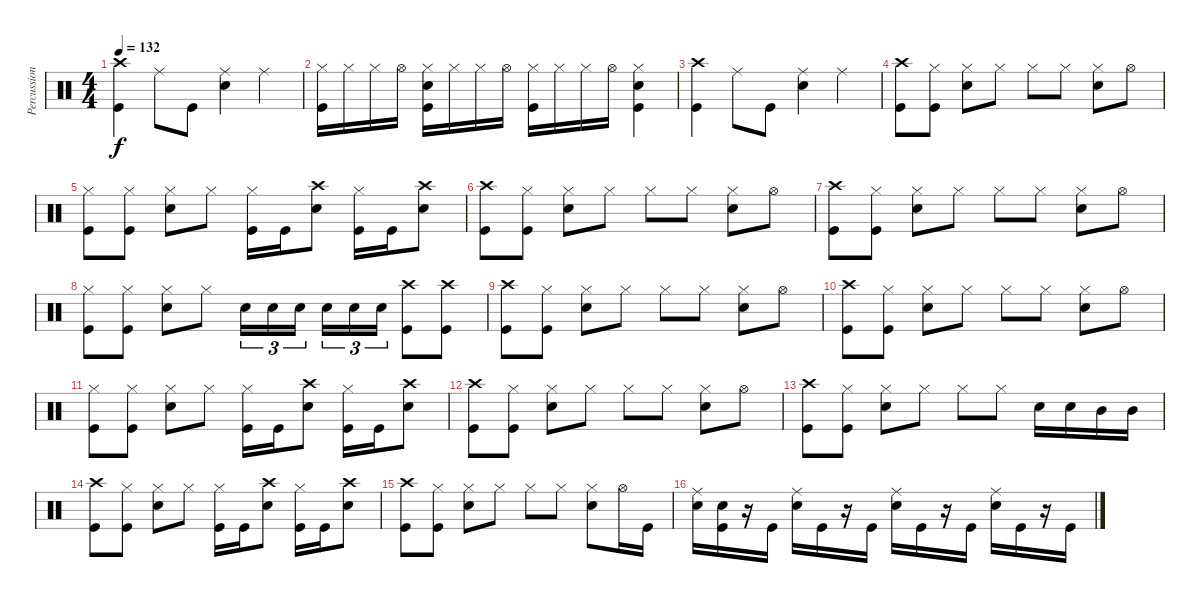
\track ("Percussion" "Percussion") {instrument percussion}
\staff {score}
\articulation defaults
\ts (4 4)
\tempo 132
\clef neutral
\ks c
("Crash high (hit)" "Kick (hit)").4{dy f} "Ride (middle)".8 "Kick (hit)".8 ("Ride (middle)" "Electric Snare (hit)").4 "Ride (middle)".4 |
("Hi-Hat (closed)" "Kick (hit)").16 "Hi-Hat (closed)".16 "Hi-Hat (closed)".16 "Hi-Hat (open)".16 ("Hi-Hat (closed)" "Electric Snare (hit)" "Kick (hit)").16 "Hi-Hat (closed)".16 "Hi-Hat (closed)".16 "Hi-Hat (open)".16 ("Hi-Hat (closed)" "Kick (hit)").16 "Hi-Hat (closed)".16 "Hi-Hat (closed)".16 "Hi-Hat (open)".16 ("Hi-Hat (closed)" "Electric Snare (hit)" "Kick (hit)").4 |
("Crash high (hit)" "Kick (hit)").4 "Ride (middle)".8 "Kick (hit)".8 ("Ride (middle)" "Electric Snare (hit)").4 "Ride (middle)".4 |
("Crash high (hit)" "Kick (hit)").8 ("Hi-Hat (closed)" "Kick (hit)").8 ("Hi-Hat (closed)" "Electric Snare (hit)").8 "Hi-Hat (closed)".8 "Hi-Hat (closed)".8 "Hi-Hat (closed)".8 ("Hi-Hat (closed)" "Electric Snare (hit)").8 "Hi-Hat (open)".8 |
("Hi-Hat (closed)" "Kick (hit)").8 ("Hi-Hat (closed)" "Kick (hit)").8 ("Hi-Hat (closed)" "Electric Snare (hit)").8 "Hi-Hat (closed)".8 ("Hi-Hat (closed)" "Kick (hit)").16 "Kick (hit)".16 ("Crash high (hit)" "Electric Snare (hit)").8 ("Hi-Hat (closed)" "Kick (hit)").16 "Kick (hit)".16 ("Crash high (hit)" "Electric Snare (hit)").8 |
("Crash high (hit)" "Kick (hit)").8 ("Hi-Hat (closed)" "Kick (hit)").8 ("Hi-Hat (closed)" "Electric Snare (hit)").8 "Hi-Hat (closed)".8 "Hi-Hat (closed)".8 "Hi-Hat (closed)".8 ("Hi-Hat (closed)" "Electric Snare (hit)").8 "Hi-Hat (open)".8 |
("Crash high (hit)" "Kick (hit)").8 ("Hi-Hat (closed)" "Kick (hit)").8 ("Hi-Hat (closed)" "Electric Snare (hit)").8 "Hi-Hat (closed)".8 "Hi-Hat (closed)".8 "Hi-Hat (closed)".8 ("Hi-Hat (closed)" "Electric Snare (hit)").8 "Hi-Hat (open)".8 |
("Hi-Hat (closed)" "Kick (hit)").8 ("Hi-Hat (closed)" "Kick (hit)").8 ("Hi-Hat (closed)" "Electric Snare (hit)").8 "Hi-Hat (closed)".8 "Electric Snare (hit)".16{tu (3 2)} "Electric Snare (hit)".16{tu (3 2)} "Electric Snare (hit)".16{tu (3 2)} "Electric Snare (hit)".16{tu (3 2)} "Electric Snare (hit)".16{tu (3 2)} "Electric Snare (hit)".16{tu (3 2)} ("Crash high (hit)" "Kick (hit)").8 ("Crash high (hit)" "Kick (hit)").8 |
("Crash high (hit)" "Kick (hit)").8 ("Hi-Hat (closed)" "Kick (hit)").8 ("Hi-Hat (closed)" "Electric Snare (hit)").8 "Hi-Hat (closed)".8 "Hi-Hat (closed)".8 "Hi-Hat (closed)".8 ("Hi-Hat (closed)" "Electric Snare (hit)").8 "Hi-Hat (open)".8 |
("Crash high (hit)" "Kick (hit)").8 ("Hi-Hat (closed)" "Kick (hit)").8 ("Hi-Hat (closed)" "Electric Snare (hit)").8 "Hi-Hat (closed)".8 "Hi-Hat (closed)".8 "Hi-Hat (closed)".8 ("Hi-Hat (closed)" "Electric Snare (hit)").8 "Hi-Hat (open)".8 |
("Hi-Hat (closed)" "Kick (hit)").8 ("Hi-Hat (closed)" "Kick (hit)").8 ("Hi-Hat (closed)" "Electric Snare (hit)").8 "Hi-Hat (closed)".8 ("Hi-Hat (closed)" "Kick (hit)").16 "Kick (hit)".16 ("Crash high (hit)" "Electric Snare (hit)").8 ("Hi-Hat (closed)" "Kick (hit)").16 "Kick (hit)".16 ("Crash high (hit)" "Electric Snare (hit)").8 |
("Crash high (hit)" "Kick (hit)").8 ("Hi-Hat (closed)" "Kick (hit)").8 ("Hi-Hat (closed)" "Electric Snare (hit)").8 "Hi-Hat (closed)".8 "Hi-Hat (closed)".8 "Hi-Hat (closed)".8 ("Hi-Hat (closed)" "Electric Snare (hit)").8 "Hi-Hat (open)".8 |
("Crash high (hit)" "Kick (hit)").8 ("Hi-Hat (closed)" "Kick (hit)").8 ("Hi-Hat (closed)" "Electric Snare (hit)").8 "Hi-Hat (closed)".8 "Hi-Hat (closed)".8 "Hi-Hat (closed)".8 "Electric Snare (hit)".16 "Electric Snare (hit)".16 "Mid Tom (hit)".16 "Mid Tom (hit)".16 |
("Crash high (hit)" "Kick (hit)").8 ("Hi-Hat (closed)" "Kick (hit)").8 ("Hi-Hat (closed)" "Electric Snare (hit)").8 "Hi-Hat (closed)".8 ("Hi-Hat (closed)" "Kick (hit)").16 "Kick (hit)".16 ("Crash high (hit)" "Electric Snare (hit)").8 ("Hi-Hat (closed)" "Kick (hit)").16 "Kick (hit)".16 ("Crash high (hit)" "Electric Snare (hit)").8 |
("Crash high (hit)" "Kick (hit)").8 ("Hi-Hat (closed)" "Kick (hit)").8 ("Hi-Hat (closed)" "Electric Snare (hit)").8 "Hi-Hat (closed)".8 "Hi-Hat (closed)".8 "Hi-Hat (closed)".8 ("Hi-Hat (closed)" "Electric Snare (hit)").8 "Hi-Hat (open)".16 "Kick (hit)".16 |
("Ride (middle)" "Electric Snare (hit)").16 ("Electric Snare (hit)" "Kick (hit)").16 r.16 "Kick (hit)".16 ("Ride (middle)" "Electric Snare (hit)").16 "Kick (hit)".16 r.16 "Kick (hit)".16 ("Ride (middle)" "Electric Snare (hit)").16 "Kick (hit)".16 r.16 "Kick (hit)".16 ("Ride (middle)" "Electric Snare (hit)").16 "Kick (hit)".16 r.16 "Kick (hit)".16
